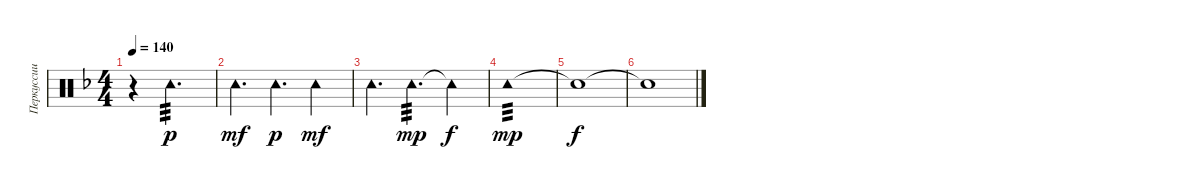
\track ("Перкуссии" "Перкуссии") {instrument percussion}
\staff {score}
\articulation defaults
\ts (4 4)
\tempo 140
\clef neutral
\ks dminor
r.4{dy f} "Tambourine (hit)".2{d tp 3 dy p} |
"Tambourine (hit)".4{d dy mf} "Tambourine (hit)".4{d dy p} "Tambourine (hit)".4{dy mf} |
"Tambourine (hit)".4{d} "Tambourine (hit)".4{d tp 3 dy mp} "Tambourine (hit)"{t}.4{dy f} |
"Tambourine (hit)".1{tp 3 dy mp} |
"Snare (hit)"{t}.1{dy f volume 0} |
"Snare (hit)"{t}.1
